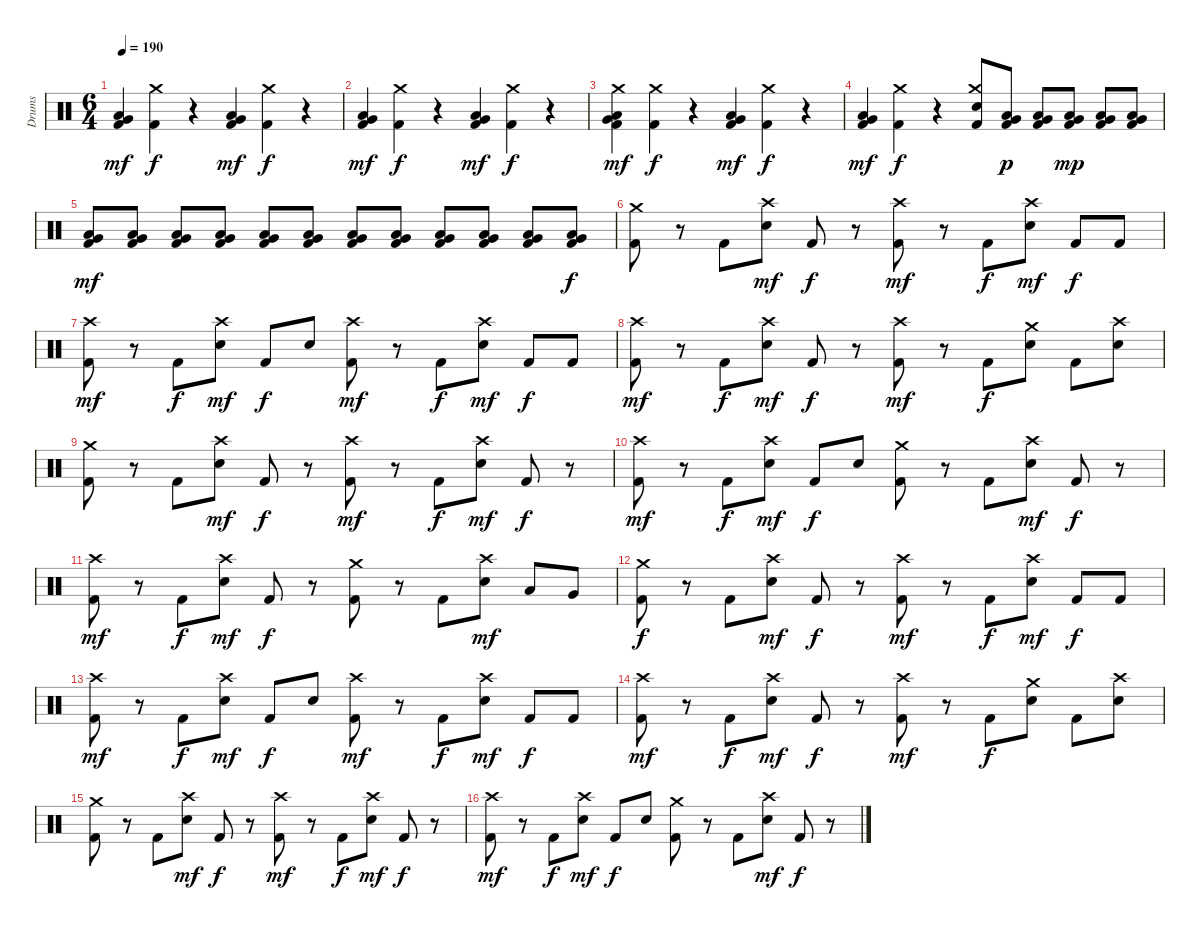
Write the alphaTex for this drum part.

\track ("Drums" "Drums") {instrument percussion}
\staff {score}
\articulation defaults
\ts (6 4)
\tempo 190
\clef neutral
\ks c
("Very Low Tom (hit)" "Low Floor Tom (hit)" "Kick (hit) 2").4{dy mf} ("Crash medium (hit)" "Kick (hit) 2").4{dy f} r.4 ("Very Low Tom (hit)" "Low Floor Tom (hit)" "Kick (hit) 2").4{dy mf} ("Crash medium (hit)" "Kick (hit) 2").4{dy f} r.4 |
("Very Low Tom (hit)" "Low Floor Tom (hit)" "Kick (hit) 2").4{dy mf} ("Crash medium (hit)" "Kick (hit) 2").4{dy f} r.4 ("Very Low Tom (hit)" "Low Floor Tom (hit)" "Kick (hit) 2").4{dy mf} ("Crash medium (hit)" "Kick (hit) 2").4{dy f} r.4 |
("Crash medium (hit)" "Very Low Tom (hit)" "Low Floor Tom (hit)" "Kick (hit) 2").4{dy mf} ("Crash medium (hit)" "Kick (hit) 2").4{dy f} r.4 ("Very Low Tom (hit)" "Low Floor Tom (hit)" "Kick (hit) 2").4{dy mf} ("Crash medium (hit)" "Kick (hit) 2").4{dy f} r.4 |
("Very Low Tom (hit)" "Low Floor Tom (hit)" "Kick (hit) 2").4{dy mf} ("Crash medium (hit)" "Kick (hit) 2").4{dy f} r.4 ("Crash medium (hit)" "Snare (hit) 2" "Kick (hit) 2").8 ("Very Low Tom (hit)" "Low Floor Tom (hit)" "Kick (hit) 2").8{dy p} ("Very Low Tom (hit)" "Low Floor Tom (hit)" "Kick (hit) 2").8 ("Very Low Tom (hit)" "Low Floor Tom (hit)" "Kick (hit) 2").8{dy mp} ("Very Low Tom (hit)" "Low Floor Tom (hit)" "Kick (hit) 2").8 ("Very Low Tom (hit)" "Low Floor Tom (hit)" "Kick (hit) 2").8 |
("Very Low Tom (hit)" "Low Floor Tom (hit)" "Kick (hit) 2").8{dy mf} ("Very Low Tom (hit)" "Low Floor Tom (hit)" "Kick (hit) 2").8 ("Very Low Tom (hit)" "Low Floor Tom (hit)" "Kick (hit) 2").8 ("Very Low Tom (hit)" "Low Floor Tom (hit)" "Kick (hit) 2").8 ("Very Low Tom (hit)" "Low Floor Tom (hit)" "Kick (hit) 2").8 ("Very Low Tom (hit)" "Low Floor Tom (hit)" "Kick (hit) 2").8 ("Very Low Tom (hit)" "Low Floor Tom (hit)" "Kick (hit) 2").8 ("Very Low Tom (hit)" "Low Floor Tom (hit)" "Kick (hit) 2").8 ("Very Low Tom (hit)" "Low Floor Tom (hit)" "Kick (hit) 2").8 ("Very Low Tom (hit)" "Low Floor Tom (hit)" "Kick (hit) 2").8 ("Very Low Tom (hit)" "Low Floor Tom (hit)" "Kick (hit) 2").8 ("Very Low Tom (hit)" "Low Floor Tom (hit)" "Kick (hit) 2").8{dy f} |
("Crash medium (hit)" "Kick (hit) 2").8 r.8 "Kick (hit) 2".8 ("Crash high (hit)" "Snare (hit) 2").8{dy mf} "Kick (hit) 2".8{dy f} r.8 ("Crash high (hit)" "Kick (hit) 2").8{dy mf} r.8 "Kick (hit) 2".8{dy f} ("Crash high (hit)" "Snare (hit) 2").8{dy mf} "Kick (hit) 2".8{dy f} "Kick (hit) 2".8 |
("Crash high (hit)" "Kick (hit) 2").8{dy mf} r.8 "Kick (hit) 2".8{dy f} ("Crash high (hit)" "Snare (hit) 2").8{dy mf} "Kick (hit) 2".8{dy f} "Snare (hit) 2".8 ("Crash high (hit)" "Kick (hit) 2").8{dy mf} r.8 "Kick (hit) 2".8{dy f} ("Crash high (hit)" "Snare (hit) 2").8{dy mf} "Kick (hit) 2".8{dy f} "Kick (hit) 2".8 |
("Crash high (hit)" "Kick (hit) 2").8{dy mf} r.8 "Kick (hit) 2".8{dy f} ("Crash high (hit)" "Snare (hit) 2").8{dy mf} "Kick (hit) 2".8{dy f} r.8 ("Crash high (hit)" "Kick (hit) 2").8{dy mf} r.8 "Kick (hit) 2".8{dy f} ("Crash medium (hit)" "Snare (hit) 2").8 "Kick (hit) 2".8 ("Crash high (hit)" "Snare (hit) 2").8 |
("Crash medium (hit)" "Kick (hit) 2").8 r.8 "Kick (hit) 2".8 ("Crash high (hit)" "Snare (hit) 2").8{dy mf} "Kick (hit) 2".8{dy f} r.8 ("Crash high (hit)" "Kick (hit) 2").8{dy mf} r.8 "Kick (hit) 2".8{dy f} ("Crash high (hit)" "Snare (hit) 2").8{dy mf} "Kick (hit) 2".8{dy f} r.8 |
("Crash high (hit)" "Kick (hit) 2").8{dy mf} r.8 "Kick (hit) 2".8{dy f} ("Crash high (hit)" "Snare (hit) 2").8{dy mf} "Kick (hit) 2".8{dy f} "Snare (hit) 2".8 ("Crash medium (hit)" "Kick (hit) 2").8 r.8 "Kick (hit) 2".8 ("Crash high (hit)" "Snare (hit) 2").8{dy mf} "Kick (hit) 2".8{dy f} r.8 |
("Crash high (hit)" "Kick (hit) 2").8{dy mf} r.8 "Kick (hit) 2".8{dy f} ("Crash high (hit)" "Snare (hit) 2").8{dy mf} "Kick (hit) 2".8{dy f} r.8 ("Crash medium (hit)" "Kick (hit) 2").8 r.8 "Kick (hit) 2".8 ("Crash high (hit)" "Snare (hit) 2").8{dy mf} "Low Tom (hit)".8 "Very Low Tom (hit)".8 |
("Crash medium (hit)" "Kick (hit) 2").8{dy f} r.8 "Kick (hit) 2".8 ("Crash high (hit)" "Snare (hit) 2").8{dy mf} "Kick (hit) 2".8{dy f} r.8 ("Crash high (hit)" "Kick (hit) 2").8{dy mf} r.8 "Kick (hit) 2".8{dy f} ("Crash high (hit)" "Snare (hit) 2").8{dy mf} "Kick (hit) 2".8{dy f} "Kick (hit) 2".8 |
("Crash high (hit)" "Kick (hit) 2").8{dy mf} r.8 "Kick (hit) 2".8{dy f} ("Crash high (hit)" "Snare (hit) 2").8{dy mf} "Kick (hit) 2".8{dy f} "Snare (hit) 2".8 ("Crash high (hit)" "Kick (hit) 2").8{dy mf} r.8 "Kick (hit) 2".8{dy f} ("Crash high (hit)" "Snare (hit) 2").8{dy mf} "Kick (hit) 2".8{dy f} "Kick (hit) 2".8 |
("Crash high (hit)" "Kick (hit) 2").8{dy mf} r.8 "Kick (hit) 2".8{dy f} ("Crash high (hit)" "Snare (hit) 2").8{dy mf} "Kick (hit) 2".8{dy f} r.8 ("Crash high (hit)" "Kick (hit) 2").8{dy mf} r.8 "Kick (hit) 2".8{dy f} ("Crash medium (hit)" "Snare (hit) 2").8 "Kick (hit) 2".8 ("Crash high (hit)" "Snare (hit) 2").8 |
("Crash medium (hit)" "Kick (hit) 2").8 r.8 "Kick (hit) 2".8 ("Crash high (hit)" "Snare (hit) 2").8{dy mf} "Kick (hit) 2".8{dy f} r.8 ("Crash high (hit)" "Kick (hit) 2").8{dy mf} r.8 "Kick (hit) 2".8{dy f} ("Crash high (hit)" "Snare (hit) 2").8{dy mf} "Kick (hit) 2".8{dy f} r.8 |
("Crash high (hit)" "Kick (hit) 2").8{dy mf} r.8 "Kick (hit) 2".8{dy f} ("Crash high (hit)" "Snare (hit) 2").8{dy mf} "Kick (hit) 2".8{dy f} "Snare (hit) 2".8 ("Crash medium (hit)" "Kick (hit) 2").8 r.8 "Kick (hit) 2".8 ("Crash high (hit)" "Snare (hit) 2").8{dy mf} "Kick (hit) 2".8{dy f} r.8
